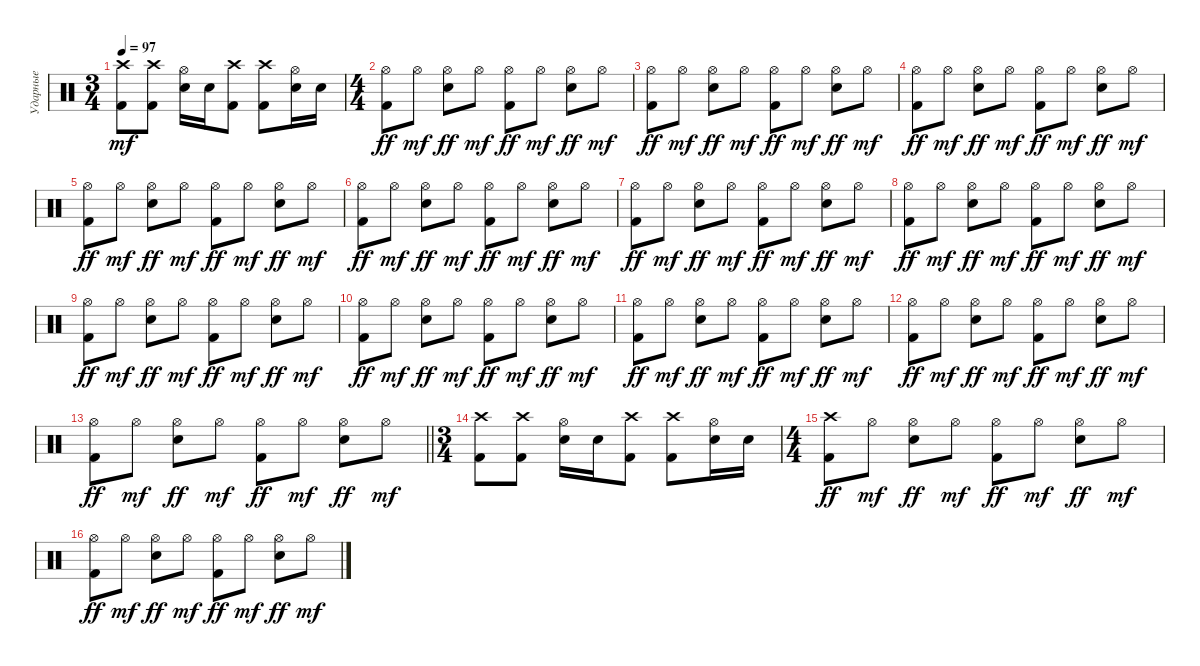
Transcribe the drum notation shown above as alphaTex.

\track ("Ударные" "Ударные") {instrument percussion}
\staff {score}
\articulation defaults
\ts (3 4)
\section ("" "")
\tempo 97
\clef neutral
\ks c
("Crash high (hit)" "Kick (hit) 2").8{dy mf} ("Crash high (hit)" "Kick (hit) 2").8 ("Hi-Hat (open)" "Snare (hit) 2").16 "Snare (hit) 2".16 ("Crash high (hit)" "Kick (hit) 2").8 ("Crash high (hit)" "Kick (hit) 2").8 ("Hi-Hat (open)" "Snare (hit) 2").16 "Snare (hit) 2".16 |
\ts (4 4)
("Hi-Hat (open)" "Kick (hit) 2").8{dy ff} "Hi-Hat (open)".8{dy mf} ("Hi-Hat (open)" "Snare (hit) 2").8{dy ff} "Hi-Hat (open)".8{dy mf} ("Hi-Hat (open)" "Kick (hit) 2").8{dy ff} "Hi-Hat (open)".8{dy mf} ("Hi-Hat (open)" "Snare (hit) 2").8{dy ff} "Hi-Hat (open)".8{dy mf} |
("Hi-Hat (open)" "Kick (hit) 2").8{dy ff} "Hi-Hat (open)".8{dy mf} ("Hi-Hat (open)" "Snare (hit) 2").8{dy ff} "Hi-Hat (open)".8{dy mf} ("Hi-Hat (open)" "Kick (hit) 2").8{dy ff} "Hi-Hat (open)".8{dy mf} ("Hi-Hat (open)" "Snare (hit) 2").8{dy ff} "Hi-Hat (open)".8{dy mf} |
("Hi-Hat (open)" "Kick (hit) 2").8{dy ff} "Hi-Hat (open)".8{dy mf} ("Hi-Hat (open)" "Snare (hit) 2").8{dy ff} "Hi-Hat (open)".8{dy mf} ("Hi-Hat (open)" "Kick (hit) 2").8{dy ff} "Hi-Hat (open)".8{dy mf} ("Hi-Hat (open)" "Snare (hit) 2").8{dy ff} "Hi-Hat (open)".8{dy mf} |
("Hi-Hat (open)" "Kick (hit) 2").8{dy ff} "Hi-Hat (open)".8{dy mf} ("Hi-Hat (open)" "Snare (hit) 2").8{dy ff} "Hi-Hat (open)".8{dy mf} ("Hi-Hat (open)" "Kick (hit) 2").8{dy ff} "Hi-Hat (open)".8{dy mf} ("Hi-Hat (open)" "Snare (hit) 2").8{dy ff} "Hi-Hat (open)".8{dy mf} |
("Hi-Hat (open)" "Kick (hit) 2").8{dy ff} "Hi-Hat (open)".8{dy mf} ("Hi-Hat (open)" "Snare (hit) 2").8{dy ff} "Hi-Hat (open)".8{dy mf} ("Hi-Hat (open)" "Kick (hit) 2").8{dy ff} "Hi-Hat (open)".8{dy mf} ("Hi-Hat (open)" "Snare (hit) 2").8{dy ff} "Hi-Hat (open)".8{dy mf} |
("Hi-Hat (open)" "Kick (hit) 2").8{dy ff} "Hi-Hat (open)".8{dy mf} ("Hi-Hat (open)" "Snare (hit) 2").8{dy ff} "Hi-Hat (open)".8{dy mf} ("Hi-Hat (open)" "Kick (hit) 2").8{dy ff} "Hi-Hat (open)".8{dy mf} ("Hi-Hat (open)" "Snare (hit) 2").8{dy ff} "Hi-Hat (open)".8{dy mf} |
("Hi-Hat (open)" "Kick (hit) 2").8{dy ff} "Hi-Hat (open)".8{dy mf} ("Hi-Hat (open)" "Snare (hit) 2").8{dy ff} "Hi-Hat (open)".8{dy mf} ("Hi-Hat (open)" "Kick (hit) 2").8{dy ff} "Hi-Hat (open)".8{dy mf} ("Hi-Hat (open)" "Snare (hit) 2").8{dy ff} "Hi-Hat (open)".8{dy mf} |
("Hi-Hat (open)" "Kick (hit) 2").8{dy ff} "Hi-Hat (open)".8{dy mf} ("Hi-Hat (open)" "Snare (hit) 2").8{dy ff} "Hi-Hat (open)".8{dy mf} ("Hi-Hat (open)" "Kick (hit) 2").8{dy ff} "Hi-Hat (open)".8{dy mf} ("Hi-Hat (open)" "Snare (hit) 2").8{dy ff} "Hi-Hat (open)".8{dy mf} |
("Hi-Hat (open)" "Kick (hit) 2").8{dy ff} "Hi-Hat (open)".8{dy mf} ("Hi-Hat (open)" "Snare (hit) 2").8{dy ff} "Hi-Hat (open)".8{dy mf} ("Hi-Hat (open)" "Kick (hit) 2").8{dy ff} "Hi-Hat (open)".8{dy mf} ("Hi-Hat (open)" "Snare (hit) 2").8{dy ff} "Hi-Hat (open)".8{dy mf} |
("Hi-Hat (open)" "Kick (hit) 2").8{dy ff} "Hi-Hat (open)".8{dy mf} ("Hi-Hat (open)" "Snare (hit) 2").8{dy ff} "Hi-Hat (open)".8{dy mf} ("Hi-Hat (open)" "Kick (hit) 2").8{dy ff} "Hi-Hat (open)".8{dy mf} ("Hi-Hat (open)" "Snare (hit) 2").8{dy ff} "Hi-Hat (open)".8{dy mf} |
("Hi-Hat (open)" "Kick (hit) 2").8{dy ff} "Hi-Hat (open)".8{dy mf} ("Hi-Hat (open)" "Snare (hit) 2").8{dy ff} "Hi-Hat (open)".8{dy mf} ("Hi-Hat (open)" "Kick (hit) 2").8{dy ff} "Hi-Hat (open)".8{dy mf} ("Hi-Hat (open)" "Snare (hit) 2").8{dy ff} "Hi-Hat (open)".8{dy mf} |
\barLineRight lightlight
("Hi-Hat (open)" "Kick (hit) 2").8{dy ff} "Hi-Hat (open)".8{dy mf} ("Hi-Hat (open)" "Snare (hit) 2").8{dy ff} "Hi-Hat (open)".8{dy mf} ("Hi-Hat (open)" "Kick (hit) 2").8{dy ff} "Hi-Hat (open)".8{dy mf} ("Hi-Hat (open)" "Snare (hit) 2").8{dy ff} "Hi-Hat (open)".8{dy mf} |
\ts (3 4)
\section ("" "")
("Crash high (hit)" "Kick (hit) 2").8 ("Crash high (hit)" "Kick (hit) 2").8 ("Hi-Hat (open)" "Snare (hit) 2").16 "Snare (hit) 2".16 ("Crash high (hit)" "Kick (hit) 2").8 ("Crash high (hit)" "Kick (hit) 2").8 ("Hi-Hat (open)" "Snare (hit) 2").16 "Snare (hit) 2".16 |
\ts (4 4)
("Crash high (hit)" "Kick (hit) 2").8{dy ff} "Hi-Hat (open)".8{dy mf} ("Hi-Hat (open)" "Snare (hit) 2").8{dy ff} "Hi-Hat (open)".8{dy mf} ("Hi-Hat (open)" "Kick (hit) 2").8{dy ff} "Hi-Hat (open)".8{dy mf} ("Hi-Hat (open)" "Snare (hit) 2").8{dy ff} "Hi-Hat (open)".8{dy mf} |
("Hi-Hat (open)" "Kick (hit) 2").8{dy ff} "Hi-Hat (open)".8{dy mf} ("Hi-Hat (open)" "Snare (hit) 2").8{dy ff} "Hi-Hat (open)".8{dy mf} ("Hi-Hat (open)" "Kick (hit) 2").8{dy ff} "Hi-Hat (open)".8{dy mf} ("Hi-Hat (open)" "Snare (hit) 2").8{dy ff} "Hi-Hat (open)".8{dy mf}
